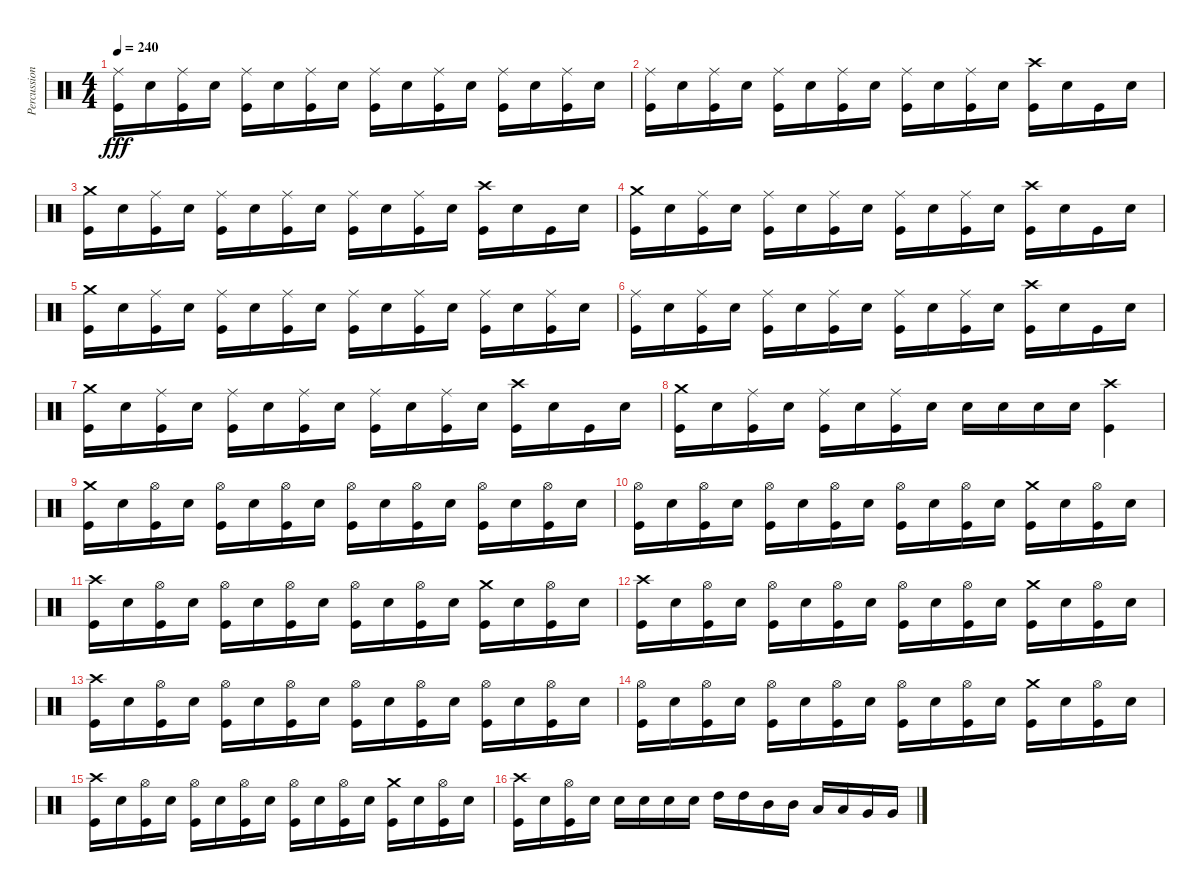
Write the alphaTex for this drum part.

\track ("Percussion" "Percussion") {instrument percussion}
\staff {score}
\articulation defaults
\ts (4 4)
\tempo 240
\clef neutral
\ks c
("Kick (hit)" "Ride (middle)").16{dy fff} "Snare (hit) 2".16 ("Kick (hit)" "Ride (middle)").16 "Snare (hit) 2".16 ("Kick (hit)" "Ride (middle)").16 "Snare (hit) 2".16 ("Kick (hit)" "Ride (middle)").16 "Snare (hit) 2".16 ("Kick (hit)" "Ride (middle)").16 "Snare (hit) 2".16 ("Kick (hit)" "Ride (middle)").16 "Snare (hit) 2".16 ("Kick (hit)" "Ride (middle)").16 "Snare (hit) 2".16 ("Kick (hit)" "Ride (middle)").16 "Snare (hit) 2".16 |
("Kick (hit)" "Ride (middle)").16 "Snare (hit) 2".16 ("Kick (hit)" "Ride (middle)").16 "Snare (hit) 2".16 ("Kick (hit)" "Ride (middle)").16 "Snare (hit) 2".16 ("Kick (hit)" "Ride (middle)").16 "Snare (hit) 2".16 ("Kick (hit)" "Ride (middle)").16 "Snare (hit) 2".16 ("Kick (hit)" "Ride (middle)").16 "Snare (hit) 2".16 ("Kick (hit)" "Crash high (hit)").16 "Snare (hit) 2".16 "Kick (hit)".16 "Snare (hit) 2".16 |
("Kick (hit)" "Crash medium (hit)").16 "Snare (hit) 2".16 ("Kick (hit)" "Ride (middle)").16 "Snare (hit) 2".16 ("Kick (hit)" "Ride (middle)").16 "Snare (hit) 2".16 ("Kick (hit)" "Ride (middle)").16 "Snare (hit) 2".16 ("Kick (hit)" "Ride (middle)").16 "Snare (hit) 2".16 ("Kick (hit)" "Ride (middle)").16 "Snare (hit) 2".16 ("Kick (hit)" "Crash high (hit)").16 "Snare (hit) 2".16 "Kick (hit)".16 "Snare (hit) 2".16 |
("Kick (hit)" "Crash medium (hit)").16 "Snare (hit) 2".16 ("Kick (hit)" "Ride (middle)").16 "Snare (hit) 2".16 ("Kick (hit)" "Ride (middle)").16 "Snare (hit) 2".16 ("Kick (hit)" "Ride (middle)").16 "Snare (hit) 2".16 ("Kick (hit)" "Ride (middle)").16 "Snare (hit) 2".16 ("Kick (hit)" "Ride (middle)").16 "Snare (hit) 2".16 ("Kick (hit)" "Crash high (hit)").16 "Snare (hit) 2".16 "Kick (hit)".16 "Snare (hit) 2".16 |
("Kick (hit)" "Crash medium (hit)").16 "Snare (hit) 2".16 ("Kick (hit)" "Ride (middle)").16 "Snare (hit) 2".16 ("Kick (hit)" "Ride (middle)").16 "Snare (hit) 2".16 ("Kick (hit)" "Ride (middle)").16 "Snare (hit) 2".16 ("Kick (hit)" "Ride (middle)").16 "Snare (hit) 2".16 ("Kick (hit)" "Ride (middle)").16 "Snare (hit) 2".16 ("Kick (hit)" "Ride (middle)").16 "Snare (hit) 2".16 ("Kick (hit)" "Ride (middle)").16 "Snare (hit) 2".16 |
("Kick (hit)" "Ride (middle)").16 "Snare (hit) 2".16 ("Kick (hit)" "Ride (middle)").16 "Snare (hit) 2".16 ("Kick (hit)" "Ride (middle)").16 "Snare (hit) 2".16 ("Kick (hit)" "Ride (middle)").16 "Snare (hit) 2".16 ("Kick (hit)" "Ride (middle)").16 "Snare (hit) 2".16 ("Kick (hit)" "Ride (middle)").16 "Snare (hit) 2".16 ("Kick (hit)" "Crash high (hit)").16 "Snare (hit) 2".16 "Kick (hit)".16 "Snare (hit) 2".16 |
("Kick (hit)" "Crash medium (hit)").16 "Snare (hit) 2".16 ("Kick (hit)" "Ride (middle)").16 "Snare (hit) 2".16 ("Kick (hit)" "Ride (middle)").16 "Snare (hit) 2".16 ("Kick (hit)" "Ride (middle)").16 "Snare (hit) 2".16 ("Kick (hit)" "Ride (middle)").16 "Snare (hit) 2".16 ("Kick (hit)" "Ride (middle)").16 "Snare (hit) 2".16 ("Kick (hit)" "Crash high (hit)").16 "Snare (hit) 2".16 "Kick (hit)".16 "Snare (hit) 2".16 |
("Kick (hit)" "Crash medium (hit)").16 "Snare (hit) 2".16 ("Kick (hit)" "Ride (middle)").16 "Snare (hit) 2".16 ("Kick (hit)" "Ride (middle)").16 "Snare (hit) 2".16 ("Kick (hit)" "Ride (middle)").16 "Snare (hit) 2".16 "Snare (hit) 2".16 "Snare (hit) 2".16 "Snare (hit) 2".16 "Snare (hit) 2".16 ("Kick (hit)" "Crash high (hit)").4 |
("Kick (hit)" "Crash medium (hit)").16 "Snare (hit) 2".16 ("Kick (hit)" "Hi-Hat (open)").16 "Snare (hit) 2".16 ("Kick (hit)" "Hi-Hat (open)").16 "Snare (hit) 2".16 ("Kick (hit)" "Hi-Hat (open)").16 "Snare (hit) 2".16 ("Kick (hit)" "Hi-Hat (open)").16 "Snare (hit) 2".16 ("Kick (hit)" "Hi-Hat (open)").16 "Snare (hit) 2".16 ("Kick (hit)" "Hi-Hat (open)").16 "Snare (hit) 2".16 ("Kick (hit)" "Hi-Hat (open)").16 "Snare (hit) 2".16 |
("Kick (hit)" "Hi-Hat (open)").16 "Snare (hit) 2".16 ("Kick (hit)" "Hi-Hat (open)").16 "Snare (hit) 2".16 ("Kick (hit)" "Hi-Hat (open)").16 "Snare (hit) 2".16 ("Kick (hit)" "Hi-Hat (open)").16 "Snare (hit) 2".16 ("Kick (hit)" "Hi-Hat (open)").16 "Snare (hit) 2".16 ("Kick (hit)" "Hi-Hat (open)").16 "Snare (hit) 2".16 ("Kick (hit)" "Crash medium (hit)").16 "Snare (hit) 2".16 ("Kick (hit)" "Hi-Hat (open)").16 "Snare (hit) 2".16 |
("Kick (hit)" "Crash high (hit)").16 "Snare (hit) 2".16 ("Kick (hit)" "Hi-Hat (open)").16 "Snare (hit) 2".16 ("Kick (hit)" "Hi-Hat (open)").16 "Snare (hit) 2".16 ("Kick (hit)" "Hi-Hat (open)").16 "Snare (hit) 2".16 ("Kick (hit)" "Hi-Hat (open)").16 "Snare (hit) 2".16 ("Kick (hit)" "Hi-Hat (open)").16 "Snare (hit) 2".16 ("Kick (hit)" "Crash medium (hit)").16 "Snare (hit) 2".16 ("Kick (hit)" "Hi-Hat (open)").16 "Snare (hit) 2".16 |
("Kick (hit)" "Crash high (hit)").16 "Snare (hit) 2".16 ("Kick (hit)" "Hi-Hat (open)").16 "Snare (hit) 2".16 ("Kick (hit)" "Hi-Hat (open)").16 "Snare (hit) 2".16 ("Kick (hit)" "Hi-Hat (open)").16 "Snare (hit) 2".16 ("Kick (hit)" "Hi-Hat (open)").16 "Snare (hit) 2".16 ("Kick (hit)" "Hi-Hat (open)").16 "Snare (hit) 2".16 ("Kick (hit)" "Crash medium (hit)").16 "Snare (hit) 2".16 ("Kick (hit)" "Hi-Hat (open)").16 "Snare (hit) 2".16 |
("Kick (hit)" "Crash high (hit)").16 "Snare (hit) 2".16 ("Kick (hit)" "Hi-Hat (open)").16 "Snare (hit) 2".16 ("Kick (hit)" "Hi-Hat (open)").16 "Snare (hit) 2".16 ("Kick (hit)" "Hi-Hat (open)").16 "Snare (hit) 2".16 ("Kick (hit)" "Hi-Hat (open)").16 "Snare (hit) 2".16 ("Kick (hit)" "Hi-Hat (open)").16 "Snare (hit) 2".16 ("Kick (hit)" "Hi-Hat (open)").16 "Snare (hit) 2".16 ("Kick (hit)" "Hi-Hat (open)").16 "Snare (hit) 2".16 |
("Kick (hit)" "Hi-Hat (open)").16 "Snare (hit) 2".16 ("Kick (hit)" "Hi-Hat (open)").16 "Snare (hit) 2".16 ("Kick (hit)" "Hi-Hat (open)").16 "Snare (hit) 2".16 ("Kick (hit)" "Hi-Hat (open)").16 "Snare (hit) 2".16 ("Kick (hit)" "Hi-Hat (open)").16 "Snare (hit) 2".16 ("Kick (hit)" "Hi-Hat (open)").16 "Snare (hit) 2".16 ("Kick (hit)" "Crash medium (hit)").16 "Snare (hit) 2".16 ("Kick (hit)" "Hi-Hat (open)").16 "Snare (hit) 2".16 |
("Kick (hit)" "Crash high (hit)").16 "Snare (hit) 2".16 ("Kick (hit)" "Hi-Hat (open)").16 "Snare (hit) 2".16 ("Kick (hit)" "Hi-Hat (open)").16 "Snare (hit) 2".16 ("Kick (hit)" "Hi-Hat (open)").16 "Snare (hit) 2".16 ("Kick (hit)" "Hi-Hat (open)").16 "Snare (hit) 2".16 ("Kick (hit)" "Hi-Hat (open)").16 "Snare (hit) 2".16 ("Kick (hit)" "Crash medium (hit)").16 "Snare (hit) 2".16 ("Kick (hit)" "Hi-Hat (open)").16 "Snare (hit) 2".16 |
("Kick (hit)" "Crash high (hit)").16 "Snare (hit) 2".16 ("Kick (hit)" "Hi-Hat (open)").16 "Snare (hit) 2".16 "Snare (hit) 2".16 "Snare (hit) 2".16 "Snare (hit) 2".16 "Snare (hit) 2".16 "High Tom (hit)".16 "High Tom (hit)".16 "Mid Tom (hit)".16 "Mid Tom (hit)".16 "Low Tom (hit)".16 "Low Tom (hit)".16 "Very Low Tom (hit)".16 "Very Low Tom (hit)".16
